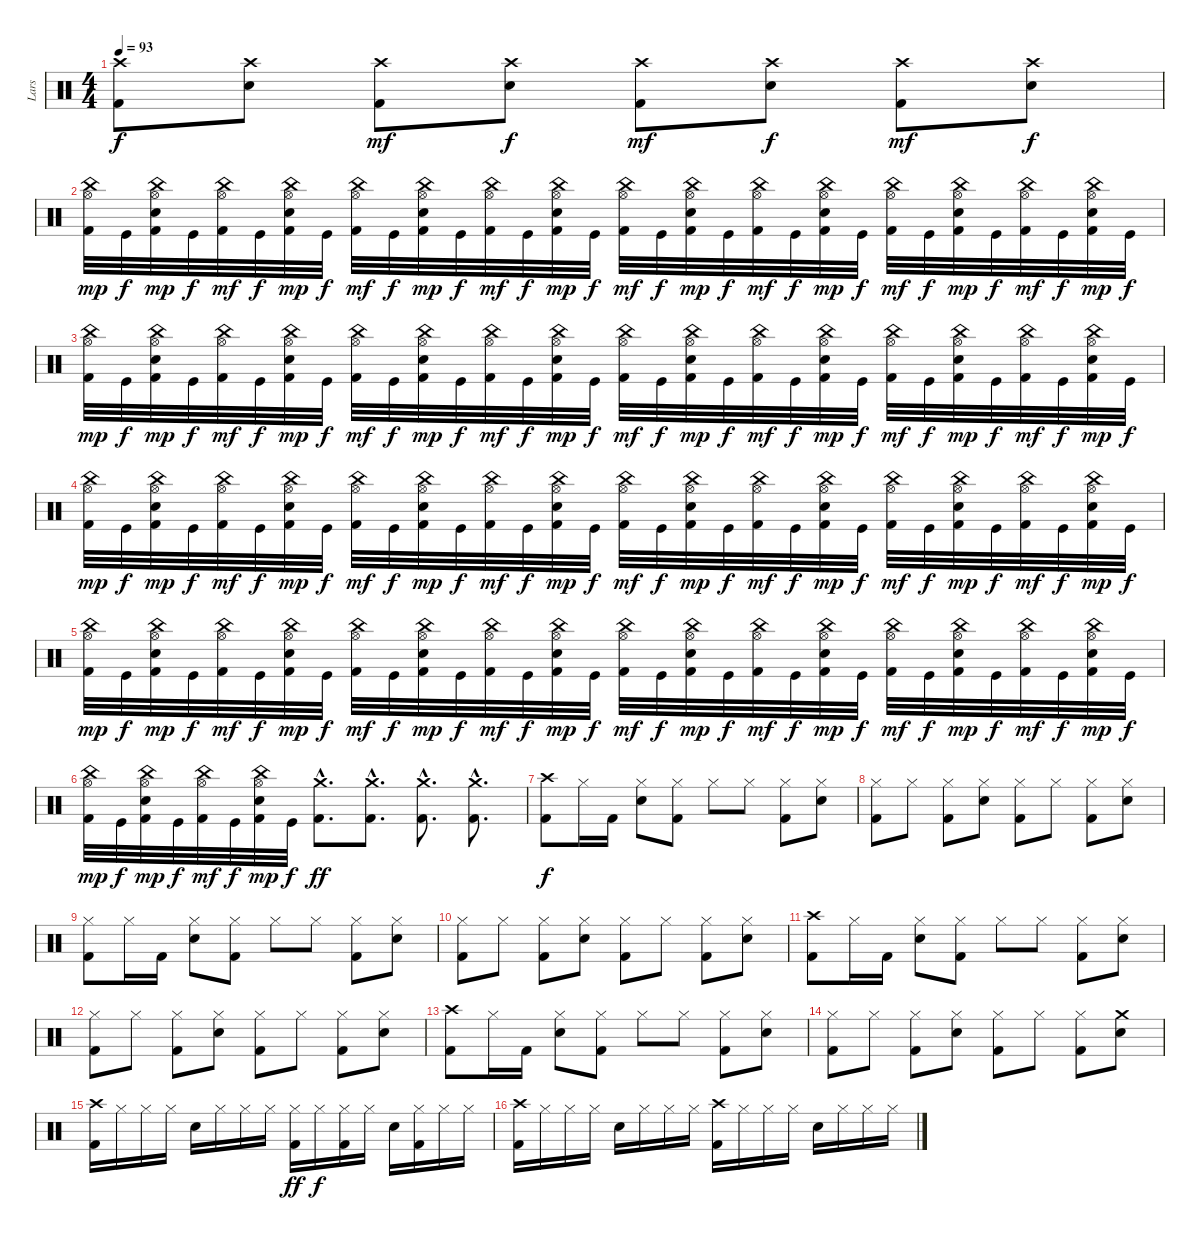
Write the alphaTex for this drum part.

\track ("Lars" "Lars") {instrument percussion}
\staff {score}
\articulation defaults
\ts (4 4)
\tempo 93
\clef neutral
\ks c
("Crash high (hit)" "Kick (hit) 2").8{dy f} ("Crash high (hit)" "Snare (hit) 2").8 ("Crash high (hit)" "Kick (hit) 2").8{dy mf} ("Crash high (hit)" "Snare (hit) 2").8{dy f} ("Crash high (hit)" "Kick (hit) 2").8{dy mf} ("Crash high (hit)" "Snare (hit) 2").8{dy f} ("Crash high (hit)" "Kick (hit) 2").8{dy mf} ("Crash high (hit)" "Snare (hit) 2").8{dy f} |
("Hi-Hat (open)" "China (hit)" "Kick (hit) 2").32{dy mp} "Kick (hit)".32{dy f} ("Hi-Hat (open)" "China (hit)" "Snare (hit) 2" "Kick (hit) 2").32{dy mp} "Kick (hit)".32{dy f} ("Hi-Hat (open)" "China (hit)" "Kick (hit) 2").32{dy mf} "Kick (hit)".32{dy f} ("Hi-Hat (open)" "China (hit)" "Snare (hit) 2" "Kick (hit) 2").32{dy mp} "Kick (hit)".32{dy f} ("Hi-Hat (open)" "China (hit)" "Kick (hit) 2").32{dy mf} "Kick (hit)".32{dy f} ("Hi-Hat (open)" "China (hit)" "Snare (hit) 2" "Kick (hit) 2").32{dy mp} "Kick (hit)".32{dy f} ("Hi-Hat (open)" "China (hit)" "Kick (hit) 2").32{dy mf} "Kick (hit)".32{dy f} ("Hi-Hat (open)" "China (hit)" "Snare (hit) 2" "Kick (hit) 2").32{dy mp} "Kick (hit)".32{dy f} ("Hi-Hat (open)" "China (hit)" "Kick (hit) 2").32{dy mf} "Kick (hit)".32{dy f} ("Hi-Hat (open)" "China (hit)" "Snare (hit) 2" "Kick (hit) 2").32{dy mp} "Kick (hit)".32{dy f} ("Hi-Hat (open)" "China (hit)" "Kick (hit) 2").32{dy mf} "Kick (hit)".32{dy f} ("Hi-Hat (open)" "China (hit)" "Snare (hit) 2" "Kick (hit) 2").32{dy mp} "Kick (hit)".32{dy f} ("Hi-Hat (open)" "China (hit)" "Kick (hit) 2").32{dy mf} "Kick (hit)".32{dy f} ("Hi-Hat (open)" "China (hit)" "Snare (hit) 2" "Kick (hit) 2").32{dy mp} "Kick (hit)".32{dy f} ("Hi-Hat (open)" "China (hit)" "Kick (hit) 2").32{dy mf} "Kick (hit)".32{dy f} ("Hi-Hat (open)" "China (hit)" "Snare (hit) 2" "Kick (hit) 2").32{dy mp} "Kick (hit)".32{dy f} |
("Hi-Hat (open)" "China (hit)" "Kick (hit) 2").32{dy mp} "Kick (hit)".32{dy f} ("Hi-Hat (open)" "China (hit)" "Snare (hit) 2" "Kick (hit) 2").32{dy mp} "Kick (hit)".32{dy f} ("Hi-Hat (open)" "China (hit)" "Kick (hit) 2").32{dy mf} "Kick (hit)".32{dy f} ("Hi-Hat (open)" "China (hit)" "Snare (hit) 2" "Kick (hit) 2").32{dy mp} "Kick (hit)".32{dy f} ("Hi-Hat (open)" "China (hit)" "Kick (hit) 2").32{dy mf} "Kick (hit)".32{dy f} ("Hi-Hat (open)" "China (hit)" "Snare (hit) 2" "Kick (hit) 2").32{dy mp} "Kick (hit)".32{dy f} ("Hi-Hat (open)" "China (hit)" "Kick (hit) 2").32{dy mf} "Kick (hit)".32{dy f} ("Hi-Hat (open)" "China (hit)" "Snare (hit) 2" "Kick (hit) 2").32{dy mp} "Kick (hit)".32{dy f} ("Hi-Hat (open)" "China (hit)" "Kick (hit) 2").32{dy mf} "Kick (hit)".32{dy f} ("Hi-Hat (open)" "China (hit)" "Snare (hit) 2" "Kick (hit) 2").32{dy mp} "Kick (hit)".32{dy f} ("Hi-Hat (open)" "China (hit)" "Kick (hit) 2").32{dy mf} "Kick (hit)".32{dy f} ("Hi-Hat (open)" "China (hit)" "Snare (hit) 2" "Kick (hit) 2").32{dy mp} "Kick (hit)".32{dy f} ("Hi-Hat (open)" "China (hit)" "Kick (hit) 2").32{dy mf} "Kick (hit)".32{dy f} ("Hi-Hat (open)" "China (hit)" "Snare (hit) 2" "Kick (hit) 2").32{dy mp} "Kick (hit)".32{dy f} ("Hi-Hat (open)" "China (hit)" "Kick (hit) 2").32{dy mf} "Kick (hit)".32{dy f} ("Hi-Hat (open)" "China (hit)" "Snare (hit) 2" "Kick (hit) 2").32{dy mp} "Kick (hit)".32{dy f} |
("Hi-Hat (open)" "China (hit)" "Kick (hit) 2").32{dy mp} "Kick (hit)".32{dy f} ("Hi-Hat (open)" "China (hit)" "Snare (hit) 2" "Kick (hit) 2").32{dy mp} "Kick (hit)".32{dy f} ("Hi-Hat (open)" "China (hit)" "Kick (hit) 2").32{dy mf} "Kick (hit)".32{dy f} ("Hi-Hat (open)" "China (hit)" "Snare (hit) 2" "Kick (hit) 2").32{dy mp} "Kick (hit)".32{dy f} ("Hi-Hat (open)" "China (hit)" "Kick (hit) 2").32{dy mf} "Kick (hit)".32{dy f} ("Hi-Hat (open)" "China (hit)" "Snare (hit) 2" "Kick (hit) 2").32{dy mp} "Kick (hit)".32{dy f} ("Hi-Hat (open)" "China (hit)" "Kick (hit) 2").32{dy mf} "Kick (hit)".32{dy f} ("Hi-Hat (open)" "China (hit)" "Snare (hit) 2" "Kick (hit) 2").32{dy mp} "Kick (hit)".32{dy f} ("Hi-Hat (open)" "China (hit)" "Kick (hit) 2").32{dy mf} "Kick (hit)".32{dy f} ("Hi-Hat (open)" "China (hit)" "Snare (hit) 2" "Kick (hit) 2").32{dy mp} "Kick (hit)".32{dy f} ("Hi-Hat (open)" "China (hit)" "Kick (hit) 2").32{dy mf} "Kick (hit)".32{dy f} ("Hi-Hat (open)" "China (hit)" "Snare (hit) 2" "Kick (hit) 2").32{dy mp} "Kick (hit)".32{dy f} ("Hi-Hat (open)" "China (hit)" "Kick (hit) 2").32{dy mf} "Kick (hit)".32{dy f} ("Hi-Hat (open)" "China (hit)" "Snare (hit) 2" "Kick (hit) 2").32{dy mp} "Kick (hit)".32{dy f} ("Hi-Hat (open)" "China (hit)" "Kick (hit) 2").32{dy mf} "Kick (hit)".32{dy f} ("Hi-Hat (open)" "China (hit)" "Snare (hit) 2" "Kick (hit) 2").32{dy mp} "Kick (hit)".32{dy f} |
("Hi-Hat (open)" "China (hit)" "Kick (hit) 2").32{dy mp} "Kick (hit)".32{dy f} ("Hi-Hat (open)" "China (hit)" "Snare (hit) 2" "Kick (hit) 2").32{dy mp} "Kick (hit)".32{dy f} ("Hi-Hat (open)" "China (hit)" "Kick (hit) 2").32{dy mf} "Kick (hit)".32{dy f} ("Hi-Hat (open)" "China (hit)" "Snare (hit) 2" "Kick (hit) 2").32{dy mp} "Kick (hit)".32{dy f} ("Hi-Hat (open)" "China (hit)" "Kick (hit) 2").32{dy mf} "Kick (hit)".32{dy f} ("Hi-Hat (open)" "China (hit)" "Snare (hit) 2" "Kick (hit) 2").32{dy mp} "Kick (hit)".32{dy f} ("Hi-Hat (open)" "China (hit)" "Kick (hit) 2").32{dy mf} "Kick (hit)".32{dy f} ("Hi-Hat (open)" "China (hit)" "Snare (hit) 2" "Kick (hit) 2").32{dy mp} "Kick (hit)".32{dy f} ("Hi-Hat (open)" "China (hit)" "Kick (hit) 2").32{dy mf} "Kick (hit)".32{dy f} ("Hi-Hat (open)" "China (hit)" "Snare (hit) 2" "Kick (hit) 2").32{dy mp} "Kick (hit)".32{dy f} ("Hi-Hat (open)" "China (hit)" "Kick (hit) 2").32{dy mf} "Kick (hit)".32{dy f} ("Hi-Hat (open)" "China (hit)" "Snare (hit) 2" "Kick (hit) 2").32{dy mp} "Kick (hit)".32{dy f} ("Hi-Hat (open)" "China (hit)" "Kick (hit) 2").32{dy mf} "Kick (hit)".32{dy f} ("Hi-Hat (open)" "China (hit)" "Snare (hit) 2" "Kick (hit) 2").32{dy mp} "Kick (hit)".32{dy f} ("Hi-Hat (open)" "China (hit)" "Kick (hit) 2").32{dy mf} "Kick (hit)".32{dy f} ("Hi-Hat (open)" "China (hit)" "Snare (hit) 2" "Kick (hit) 2").32{dy mp} "Kick (hit)".32{dy f} |
("Hi-Hat (open)" "China (hit)" "Kick (hit) 2").32{dy mp} "Kick (hit)".32{dy f} ("Hi-Hat (open)" "China (hit)" "Snare (hit) 2" "Kick (hit) 2").32{dy mp} "Kick (hit)".32{dy f} ("Hi-Hat (open)" "China (hit)" "Kick (hit) 2").32{dy mf} "Kick (hit)".32{dy f} ("Hi-Hat (open)" "China (hit)" "Snare (hit) 2" "Kick (hit) 2").32{dy mp} "Kick (hit)".32{dy f} ("Crash medium (hit)"{hac} "Kick (hit) 2"{hac}).8{d dy ff} ("Crash medium (hit)"{hac} "Kick (hit) 2"{hac}).8{d} ("Crash medium (hit)"{hac} "Kick (hit) 2"{hac}).8{d} ("Crash medium (hit)"{hac} "Kick (hit) 2"{hac}).8{d} |
("Crash high (hit)" "Kick (hit) 2").8{dy f} "Hi-Hat (closed)".16 "Kick (hit) 2".16 ("Hi-Hat (closed)" "Snare (hit) 2").8 ("Hi-Hat (closed)" "Kick (hit) 2").8 "Hi-Hat (closed)".8 "Hi-Hat (closed)".8 ("Hi-Hat (closed)" "Kick (hit) 2").8 ("Hi-Hat (closed)" "Snare (hit) 2").8 |
("Hi-Hat (closed)" "Kick (hit) 2").8 "Hi-Hat (closed)".8 ("Hi-Hat (closed)" "Kick (hit) 2").8 ("Hi-Hat (closed)" "Snare (hit) 2").8 ("Hi-Hat (closed)" "Kick (hit) 2").8 "Hi-Hat (closed)".8 ("Hi-Hat (closed)" "Kick (hit) 2").8 ("Hi-Hat (closed)" "Snare (hit) 2").8 |
("Hi-Hat (closed)" "Kick (hit) 2").8 "Hi-Hat (closed)".16 "Kick (hit) 2".16 ("Hi-Hat (closed)" "Snare (hit) 2").8 ("Hi-Hat (closed)" "Kick (hit) 2").8 "Hi-Hat (closed)".8 "Hi-Hat (closed)".8 ("Hi-Hat (closed)" "Kick (hit) 2").8 ("Hi-Hat (closed)" "Snare (hit) 2").8 |
("Hi-Hat (closed)" "Kick (hit) 2").8 "Hi-Hat (closed)".8 ("Hi-Hat (closed)" "Kick (hit) 2").8 ("Hi-Hat (closed)" "Snare (hit) 2").8 ("Hi-Hat (closed)" "Kick (hit) 2").8 "Hi-Hat (closed)".8 ("Hi-Hat (closed)" "Kick (hit) 2").8 ("Hi-Hat (closed)" "Snare (hit) 2").8 |
("Crash high (hit)" "Kick (hit) 2").8 "Hi-Hat (closed)".16 "Kick (hit) 2".16 ("Hi-Hat (closed)" "Snare (hit) 2").8 ("Hi-Hat (closed)" "Kick (hit) 2").8 "Hi-Hat (closed)".8 "Hi-Hat (closed)".8 ("Hi-Hat (closed)" "Kick (hit) 2").8 ("Hi-Hat (closed)" "Snare (hit) 2").8 |
("Hi-Hat (closed)" "Kick (hit) 2").8 "Hi-Hat (closed)".8 ("Hi-Hat (closed)" "Kick (hit) 2").8 ("Hi-Hat (closed)" "Snare (hit) 2").8 ("Hi-Hat (closed)" "Kick (hit) 2").8 "Hi-Hat (closed)".8 ("Hi-Hat (closed)" "Kick (hit) 2").8 ("Hi-Hat (closed)" "Snare (hit) 2").8 |
("Crash high (hit)" "Kick (hit) 2").8 "Hi-Hat (closed)".16 "Kick (hit) 2".16 ("Hi-Hat (closed)" "Snare (hit) 2").8 ("Hi-Hat (closed)" "Kick (hit) 2").8 "Hi-Hat (closed)".8 "Hi-Hat (closed)".8 ("Hi-Hat (closed)" "Kick (hit) 2").8 ("Hi-Hat (closed)" "Snare (hit) 2").8 |
("Hi-Hat (closed)" "Kick (hit) 2").8 "Hi-Hat (closed)".8 ("Hi-Hat (closed)" "Kick (hit) 2").8 ("Hi-Hat (closed)" "Snare (hit) 2").8 ("Hi-Hat (closed)" "Kick (hit) 2").8 "Hi-Hat (closed)".8 ("Hi-Hat (closed)" "Kick (hit) 2").8 ("Crash medium (hit)" "Snare (hit) 2").8 |
("Crash high (hit)" "Kick (hit) 2").16 "Hi-Hat (closed)".16 "Hi-Hat (closed)".16 "Hi-Hat (closed)".16 "Snare (hit) 2".16 "Hi-Hat (closed)".16 "Hi-Hat (closed)".16 "Hi-Hat (closed)".16 ("Hi-Hat (closed)" "Kick (hit) 2").16{dy ff} "Hi-Hat (closed)".16{dy f} ("Hi-Hat (closed)" "Kick (hit) 2").16 "Hi-Hat (closed)".16 "Snare (hit) 2".16 ("Hi-Hat (closed)" "Kick (hit) 2").16 "Hi-Hat (closed)".16 "Hi-Hat (closed)".16 |
("Crash high (hit)" "Kick (hit) 2").16 "Hi-Hat (closed)".16 "Hi-Hat (closed)".16 "Hi-Hat (closed)".16 "Snare (hit) 2".16 "Hi-Hat (closed)".16 "Hi-Hat (closed)".16 "Hi-Hat (closed)".16 ("Crash high (hit)" "Kick (hit) 2").16 "Hi-Hat (closed)".16 "Hi-Hat (closed)".16 "Hi-Hat (closed)".16 "Snare (hit) 2".16 "Hi-Hat (closed)".16 "Hi-Hat (closed)".16 "Hi-Hat (closed)".16
